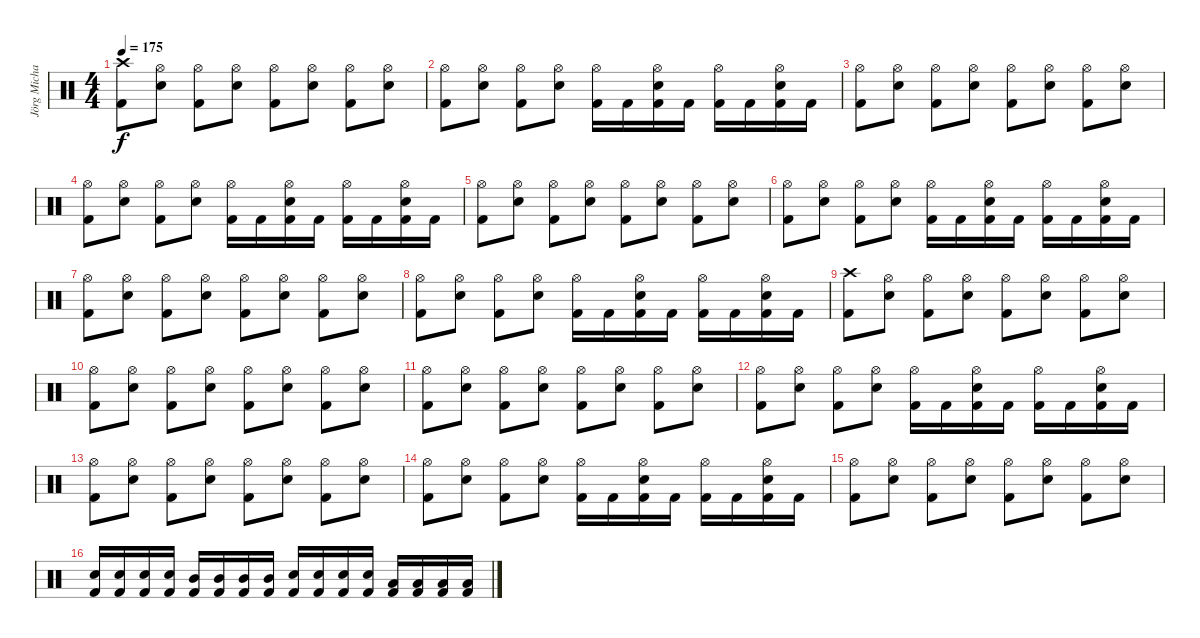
\track ("Jörg Michael" "Jörg Micha") {instrument percussion}
\staff {score}
\articulation defaults
\ts (4 4)
\tempo 175
\clef neutral
\ks c
("Kick (hit) 2" "Crash high (hit)").8{dy f} ("Electric Snare (hit)" "Hi-Hat (open)").8 ("Kick (hit) 2" "Hi-Hat (open)").8 ("Electric Snare (hit)" "Hi-Hat (open)").8 ("Kick (hit) 2" "Hi-Hat (open)").8 ("Electric Snare (hit)" "Hi-Hat (open)").8 ("Kick (hit) 2" "Hi-Hat (open)").8 ("Electric Snare (hit)" "Hi-Hat (open)").8 |
("Kick (hit) 2" "Hi-Hat (open)").8 ("Electric Snare (hit)" "Hi-Hat (open)").8 ("Kick (hit) 2" "Hi-Hat (open)").8 ("Electric Snare (hit)" "Hi-Hat (open)").8 ("Kick (hit) 2" "Hi-Hat (open)").16 "Kick (hit) 2".16 ("Kick (hit) 2" "Electric Snare (hit)" "Hi-Hat (open)").16 "Kick (hit) 2".16 ("Kick (hit) 2" "Hi-Hat (open)").16 "Kick (hit) 2".16 ("Kick (hit) 2" "Electric Snare (hit)" "Hi-Hat (open)").16 "Kick (hit) 2".16 |
("Kick (hit) 2" "Hi-Hat (open)").8 ("Electric Snare (hit)" "Hi-Hat (open)").8 ("Kick (hit) 2" "Hi-Hat (open)").8 ("Electric Snare (hit)" "Hi-Hat (open)").8 ("Kick (hit) 2" "Hi-Hat (open)").8 ("Electric Snare (hit)" "Hi-Hat (open)").8 ("Kick (hit) 2" "Hi-Hat (open)").8 ("Electric Snare (hit)" "Hi-Hat (open)").8 |
("Kick (hit) 2" "Hi-Hat (open)").8 ("Electric Snare (hit)" "Hi-Hat (open)").8 ("Kick (hit) 2" "Hi-Hat (open)").8 ("Electric Snare (hit)" "Hi-Hat (open)").8 ("Kick (hit) 2" "Hi-Hat (open)").16 "Kick (hit) 2".16 ("Kick (hit) 2" "Electric Snare (hit)" "Hi-Hat (open)").16 "Kick (hit) 2".16 ("Kick (hit) 2" "Hi-Hat (open)").16 "Kick (hit) 2".16 ("Kick (hit) 2" "Electric Snare (hit)" "Hi-Hat (open)").16 "Kick (hit) 2".16 |
("Kick (hit) 2" "Hi-Hat (open)").8 ("Electric Snare (hit)" "Hi-Hat (open)").8 ("Kick (hit) 2" "Hi-Hat (open)").8 ("Electric Snare (hit)" "Hi-Hat (open)").8 ("Kick (hit) 2" "Hi-Hat (open)").8 ("Electric Snare (hit)" "Hi-Hat (open)").8 ("Kick (hit) 2" "Hi-Hat (open)").8 ("Electric Snare (hit)" "Hi-Hat (open)").8 |
("Kick (hit) 2" "Hi-Hat (open)").8 ("Electric Snare (hit)" "Hi-Hat (open)").8 ("Kick (hit) 2" "Hi-Hat (open)").8 ("Electric Snare (hit)" "Hi-Hat (open)").8 ("Kick (hit) 2" "Hi-Hat (open)").16 "Kick (hit) 2".16 ("Kick (hit) 2" "Electric Snare (hit)" "Hi-Hat (open)").16 "Kick (hit) 2".16 ("Kick (hit) 2" "Hi-Hat (open)").16 "Kick (hit) 2".16 ("Kick (hit) 2" "Electric Snare (hit)" "Hi-Hat (open)").16 "Kick (hit) 2".16 |
("Kick (hit) 2" "Hi-Hat (open)").8 ("Electric Snare (hit)" "Hi-Hat (open)").8 ("Kick (hit) 2" "Hi-Hat (open)").8 ("Electric Snare (hit)" "Hi-Hat (open)").8 ("Kick (hit) 2" "Hi-Hat (open)").8 ("Electric Snare (hit)" "Hi-Hat (open)").8 ("Kick (hit) 2" "Hi-Hat (open)").8 ("Electric Snare (hit)" "Hi-Hat (open)").8 |
("Kick (hit) 2" "Hi-Hat (open)").8 ("Electric Snare (hit)" "Hi-Hat (open)").8 ("Kick (hit) 2" "Hi-Hat (open)").8 ("Electric Snare (hit)" "Hi-Hat (open)").8 ("Kick (hit) 2" "Hi-Hat (open)").16 "Kick (hit) 2".16 ("Kick (hit) 2" "Electric Snare (hit)" "Hi-Hat (open)").16 "Kick (hit) 2".16 ("Kick (hit) 2" "Hi-Hat (open)").16 "Kick (hit) 2".16 ("Kick (hit) 2" "Electric Snare (hit)" "Hi-Hat (open)").16 "Kick (hit) 2".16 |
("Kick (hit) 2" "Crash high (hit)").8 ("Electric Snare (hit)" "Hi-Hat (open)").8 ("Kick (hit) 2" "Hi-Hat (open)").8 ("Electric Snare (hit)" "Hi-Hat (open)").8 ("Kick (hit) 2" "Hi-Hat (open)").8 ("Electric Snare (hit)" "Hi-Hat (open)").8 ("Kick (hit) 2" "Hi-Hat (open)").8 ("Electric Snare (hit)" "Hi-Hat (open)").8 |
("Kick (hit) 2" "Hi-Hat (open)").8 ("Electric Snare (hit)" "Hi-Hat (open)").8 ("Kick (hit) 2" "Hi-Hat (open)").8 ("Electric Snare (hit)" "Hi-Hat (open)").8 ("Kick (hit) 2" "Hi-Hat (open)").8 ("Electric Snare (hit)" "Hi-Hat (open)").8 ("Kick (hit) 2" "Hi-Hat (open)").8 ("Electric Snare (hit)" "Hi-Hat (open)").8 |
("Kick (hit) 2" "Hi-Hat (open)").8 ("Electric Snare (hit)" "Hi-Hat (open)").8 ("Kick (hit) 2" "Hi-Hat (open)").8 ("Electric Snare (hit)" "Hi-Hat (open)").8 ("Kick (hit) 2" "Hi-Hat (open)").8 ("Electric Snare (hit)" "Hi-Hat (open)").8 ("Kick (hit) 2" "Hi-Hat (open)").8 ("Electric Snare (hit)" "Hi-Hat (open)").8 |
("Kick (hit) 2" "Hi-Hat (open)").8 ("Electric Snare (hit)" "Hi-Hat (open)").8 ("Kick (hit) 2" "Hi-Hat (open)").8 ("Electric Snare (hit)" "Hi-Hat (open)").8 ("Kick (hit) 2" "Hi-Hat (open)").16 "Kick (hit) 2".16 ("Kick (hit) 2" "Electric Snare (hit)" "Hi-Hat (open)").16 "Kick (hit) 2".16 ("Kick (hit) 2" "Hi-Hat (open)").16 "Kick (hit) 2".16 ("Kick (hit) 2" "Electric Snare (hit)" "Hi-Hat (open)").16 "Kick (hit) 2".16 |
("Kick (hit) 2" "Hi-Hat (open)").8 ("Electric Snare (hit)" "Hi-Hat (open)").8 ("Kick (hit) 2" "Hi-Hat (open)").8 ("Electric Snare (hit)" "Hi-Hat (open)").8 ("Kick (hit) 2" "Hi-Hat (open)").8 ("Electric Snare (hit)" "Hi-Hat (open)").8 ("Kick (hit) 2" "Hi-Hat (open)").8 ("Electric Snare (hit)" "Hi-Hat (open)").8 |
("Kick (hit) 2" "Hi-Hat (open)").8 ("Electric Snare (hit)" "Hi-Hat (open)").8 ("Kick (hit) 2" "Hi-Hat (open)").8 ("Electric Snare (hit)" "Hi-Hat (open)").8 ("Kick (hit) 2" "Hi-Hat (open)").16 "Kick (hit) 2".16 ("Kick (hit) 2" "Electric Snare (hit)" "Hi-Hat (open)").16 "Kick (hit) 2".16 ("Kick (hit) 2" "Hi-Hat (open)").16 "Kick (hit) 2".16 ("Kick (hit) 2" "Electric Snare (hit)" "Hi-Hat (open)").16 "Kick (hit) 2".16 |
("Kick (hit) 2" "Hi-Hat (open)").8 ("Electric Snare (hit)" "Hi-Hat (open)").8 ("Kick (hit) 2" "Hi-Hat (open)").8 ("Electric Snare (hit)" "Hi-Hat (open)").8 ("Kick (hit) 2" "Hi-Hat (open)").8 ("Electric Snare (hit)" "Hi-Hat (open)").8 ("Kick (hit) 2" "Hi-Hat (open)").8 ("Electric Snare (hit)" "Hi-Hat (open)").8 |
("Kick (hit) 2" "Electric Snare (hit)").16 ("Kick (hit) 2" "Electric Snare (hit)").16 ("Kick (hit) 2" "Electric Snare (hit)").16 ("Kick (hit) 2" "Electric Snare (hit)").16 ("Kick (hit) 2" "Mid Tom (hit)").16 ("Kick (hit) 2" "Mid Tom (hit)").16 ("Kick (hit) 2" "Mid Tom (hit)").16 ("Kick (hit) 2" "Mid Tom (hit)").16 ("Kick (hit) 2" "Electric Snare (hit)").16 ("Kick (hit) 2" "Electric Snare (hit)").16 ("Kick (hit) 2" "Electric Snare (hit)").16 ("Kick (hit) 2" "Electric Snare (hit)").16 ("Kick (hit) 2" "Low Tom (hit)").16 ("Kick (hit) 2" "Low Tom (hit)").16 ("Kick (hit) 2" "Low Tom (hit)").16 ("Kick (hit) 2" "Low Tom (hit)").16
